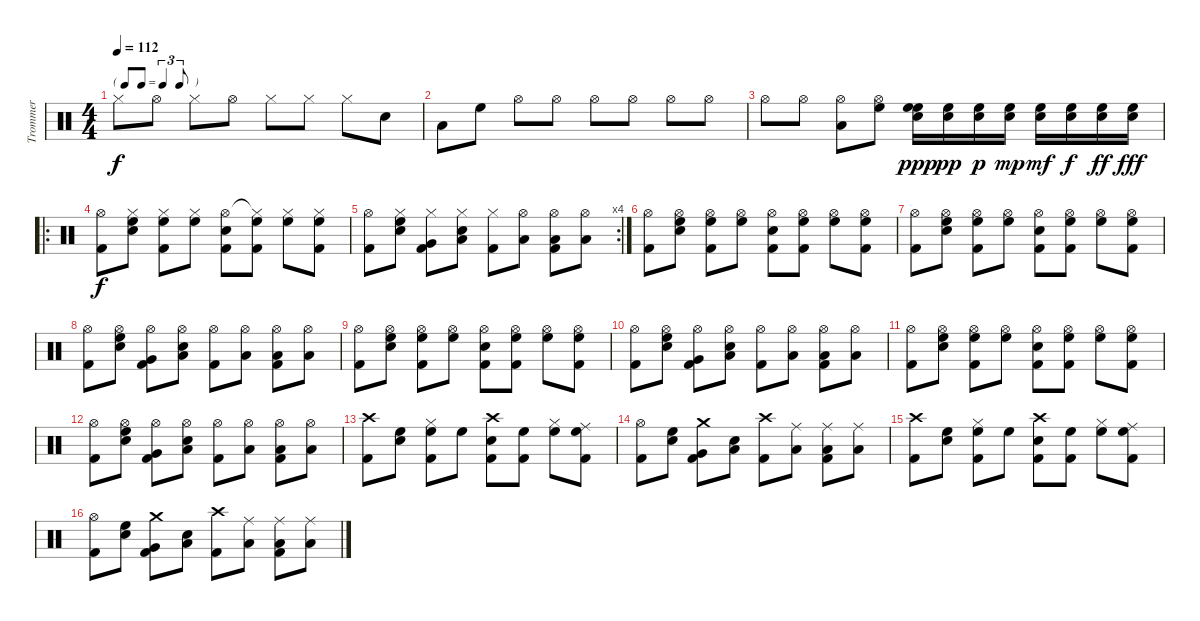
\track ("Trommer" "Trommer") {instrument percussion}
\staff {score}
\articulation defaults
\ts (4 4)
\tf triplet8th
\tempo 112
\clef neutral
\ks c "Hi-Hat (closed)".8{dy f} "Hi-Hat (open)".8 "Hi-Hat (closed)".8 "Hi-Hat (open)".8 "Hi-Hat (closed)".8 "Hi-Hat (closed)".8 "Hi-Hat (closed)".8 "Snare (hit) 2".8
|
"Low Tom (hit)".8 "High Floor Tom (hit)".8 "Hi-Hat (open)".8 "Hi-Hat (open)".8 "Hi-Hat (open)".8 "Hi-Hat (open)".8 "Hi-Hat (open)".8 "Hi-Hat (open)".8 |
"Hi-Hat (open)".8 "Hi-Hat (open)".8 ("Hi-Hat (open)" "Low Tom (hit)").8 ("Hi-Hat (open)" "High Floor Tom (hit)").8 ("Snare (hit) 2" "High Floor Tom (hit)" "High Floor Tom (hit)").16{dy ppp} ("Snare (hit) 2" "High Floor Tom (hit)").16{dy pp} ("Snare (hit) 2" "High Floor Tom (hit)").16{dy p} ("Snare (hit) 2" "High Floor Tom (hit)").16{dy mp} ("Snare (hit) 2" "High Floor Tom (hit)").16{dy mf} ("Snare (hit) 2" "High Floor Tom (hit)").16{dy f} ("Snare (hit) 2" "High Floor Tom (hit)").16{dy ff} ("Snare (hit) 2" "High Floor Tom (hit)").16{dy fff} |
\ro
("Hi-Hat (open)" "Kick (hit) 2").8{dy f} ("Hi-Hat (closed)" "Snare (hit) 2" "High Floor Tom (hit)").8 ("Hi-Hat (closed)" "High Floor Tom (hit)" "Kick (hit) 2").8 ("Hi-Hat (closed)" "High Floor Tom (hit)").8 ("Hi-Hat (open)" "Snare (hit) 2" "Kick (hit) 2").8 ("Hi-Hat (closed)"{t} "High Floor Tom (hit)" "Kick (hit) 2").8 ("Hi-Hat (closed)" "High Floor Tom (hit)").8 ("Hi-Hat (closed)" "High Floor Tom (hit)" "Kick (hit) 2").8 |
\rc 4
("Hi-Hat (open)" "Kick (hit) 2").8 ("Hi-Hat (closed)" "High Floor Tom (hit)" "Snare (hit) 2").8 ("Hi-Hat (closed)" "Very Low Tom (hit)" "Kick (hit) 2").8 ("Hi-Hat (closed)" "Snare (hit) 2" "Low Tom (hit)").8 ("Hi-Hat (closed)" "Kick (hit) 2").8 ("Hi-Hat (open)" "Low Floor Tom (hit)").8 ("Hi-Hat (open)" "Low Floor Tom (hit)" "Kick (hit) 2").8 ("Hi-Hat (open)" "Low Floor Tom (hit)").8 |
("Hi-Hat (open)" "Kick (hit) 2").8 ("Hi-Hat (open)" "Snare (hit) 2" "High Floor Tom (hit)").8 ("Hi-Hat (open)" "High Floor Tom (hit)" "Kick (hit) 2").8 ("Hi-Hat (open)" "High Floor Tom (hit)").8 ("Hi-Hat (open)" "Snare (hit) 2" "Kick (hit) 2").8 ("Hi-Hat (open)" "High Floor Tom (hit)" "Kick (hit) 2").8 ("Hi-Hat (open)" "High Floor Tom (hit)").8 ("Hi-Hat (open)" "High Floor Tom (hit)" "Kick (hit) 2").8 |
("Hi-Hat (open)" "Kick (hit) 2").8 ("Hi-Hat (open)" "Snare (hit) 2" "High Floor Tom (hit)").8 ("Hi-Hat (open)" "High Floor Tom (hit)" "Kick (hit) 2").8 ("Hi-Hat (open)" "High Floor Tom (hit)").8 ("Hi-Hat (open)" "Snare (hit) 2" "Kick (hit) 2").8 ("Hi-Hat (open)" "High Floor Tom (hit)" "Kick (hit) 2").8 ("Hi-Hat (open)" "High Floor Tom (hit)").8 ("Hi-Hat (open)" "High Floor Tom (hit)" "Kick (hit) 2").8 |
("Hi-Hat (open)" "Kick (hit) 2").8 ("Hi-Hat (open)" "High Floor Tom (hit)" "Snare (hit) 2").8 ("Hi-Hat (open)" "Very Low Tom (hit)" "Kick (hit) 2").8 ("Hi-Hat (open)" "Snare (hit) 2" "Low Tom (hit)").8 ("Hi-Hat (open)" "Kick (hit) 2").8 ("Hi-Hat (open)" "Low Floor Tom (hit)").8 ("Hi-Hat (open)" "Low Floor Tom (hit)" "Kick (hit) 2").8 ("Hi-Hat (open)" "Low Floor Tom (hit)").8 |
("Hi-Hat (open)" "Kick (hit) 2").8 ("Hi-Hat (open)" "Snare (hit) 2" "High Floor Tom (hit)").8 ("Hi-Hat (open)" "High Floor Tom (hit)" "Kick (hit) 2").8 ("Hi-Hat (open)" "High Floor Tom (hit)").8 ("Hi-Hat (open)" "Snare (hit) 2" "Kick (hit) 2").8 ("Hi-Hat (open)" "High Floor Tom (hit)" "Kick (hit) 2").8 ("Hi-Hat (open)" "High Floor Tom (hit)").8 ("Hi-Hat (open)" "High Floor Tom (hit)" "Kick (hit) 2").8 |
("Hi-Hat (open)" "Kick (hit) 2").8 ("Hi-Hat (open)" "High Floor Tom (hit)" "Snare (hit) 2").8 ("Hi-Hat (open)" "Very Low Tom (hit)" "Kick (hit) 2").8 ("Hi-Hat (open)" "Snare (hit) 2" "Low Tom (hit)").8 ("Hi-Hat (open)" "Kick (hit) 2").8 ("Hi-Hat (open)" "Low Floor Tom (hit)").8 ("Hi-Hat (open)" "Low Floor Tom (hit)" "Kick (hit) 2").8 ("Hi-Hat (open)" "Low Floor Tom (hit)").8 |
("Hi-Hat (open)" "Kick (hit) 2").8 ("Hi-Hat (open)" "Snare (hit) 2" "High Floor Tom (hit)").8 ("Hi-Hat (open)" "High Floor Tom (hit)" "Kick (hit) 2").8 ("Hi-Hat (open)" "High Floor Tom (hit)").8 ("Hi-Hat (open)" "Snare (hit) 2" "Kick (hit) 2").8 ("Hi-Hat (open)" "High Floor Tom (hit)" "Kick (hit) 2").8 ("Hi-Hat (open)" "High Floor Tom (hit)").8 ("Hi-Hat (open)" "High Floor Tom (hit)" "Kick (hit) 2").8 |
("Hi-Hat (open)" "Kick (hit) 2").8 ("Hi-Hat (open)" "High Floor Tom (hit)" "Snare (hit) 2").8 ("Hi-Hat (open)" "Very Low Tom (hit)" "Kick (hit) 2").8 ("Hi-Hat (open)" "Snare (hit) 2" "Low Tom (hit)").8 ("Hi-Hat (open)" "Kick (hit) 2").8 ("Hi-Hat (open)" "Low Floor Tom (hit)").8 ("Hi-Hat (open)" "Low Floor Tom (hit)" "Kick (hit) 2").8 ("Hi-Hat (open)" "Low Floor Tom (hit)").8 |
("Crash high (hit)" "Kick (hit) 2").8 ("Snare (hit) 2" "High Floor Tom (hit)").8 ("Hi-Hat (closed)" "High Floor Tom (hit)" "Kick (hit) 2").8 "High Floor Tom (hit)".8 ("Crash high (hit)" "Snare (hit) 2" "Kick (hit) 2").8 ("High Floor Tom (hit)" "Kick (hit) 2").8 ("Hi-Hat (closed)" "High Floor Tom (hit)").8 ("Ride (middle)" "High Floor Tom (hit)" "Kick (hit) 2").8 |
("Hi-Hat (open)" "Kick (hit) 2").8 ("High Floor Tom (hit)" "Snare (hit) 2").8 ("Crash medium (hit)" "Very Low Tom (hit)" "Kick (hit) 2").8 ("Snare (hit) 2" "Low Tom (hit)").8 ("Crash high (hit)" "Kick (hit) 2").8 ("Ride (middle)" "Low Floor Tom (hit)").8 ("Ride (middle)" "Low Floor Tom (hit)" "Kick (hit) 2").8 ("Ride (middle)" "Low Floor Tom (hit)").8 |
("Crash high (hit)" "Kick (hit) 2").8 ("Snare (hit) 2" "High Floor Tom (hit)").8 ("Hi-Hat (closed)" "High Floor Tom (hit)" "Kick (hit) 2").8 "High Floor Tom (hit)".8 ("Crash high (hit)" "Snare (hit) 2" "Kick (hit) 2").8 ("High Floor Tom (hit)" "Kick (hit) 2").8 ("Hi-Hat (closed)" "High Floor Tom (hit)").8 ("Ride (middle)" "High Floor Tom (hit)" "Kick (hit) 2").8 |
("Hi-Hat (open)" "Kick (hit) 2").8 ("High Floor Tom (hit)" "Snare (hit) 2").8 ("Crash medium (hit)" "Very Low Tom (hit)" "Kick (hit) 2").8 ("Snare (hit) 2" "Low Tom (hit)").8 ("Crash high (hit)" "Kick (hit) 2").8 ("Ride (middle)" "Low Floor Tom (hit)").8 ("Ride (middle)" "Low Floor Tom (hit)" "Kick (hit) 2").8 ("Ride (middle)" "Low Floor Tom (hit)").8
